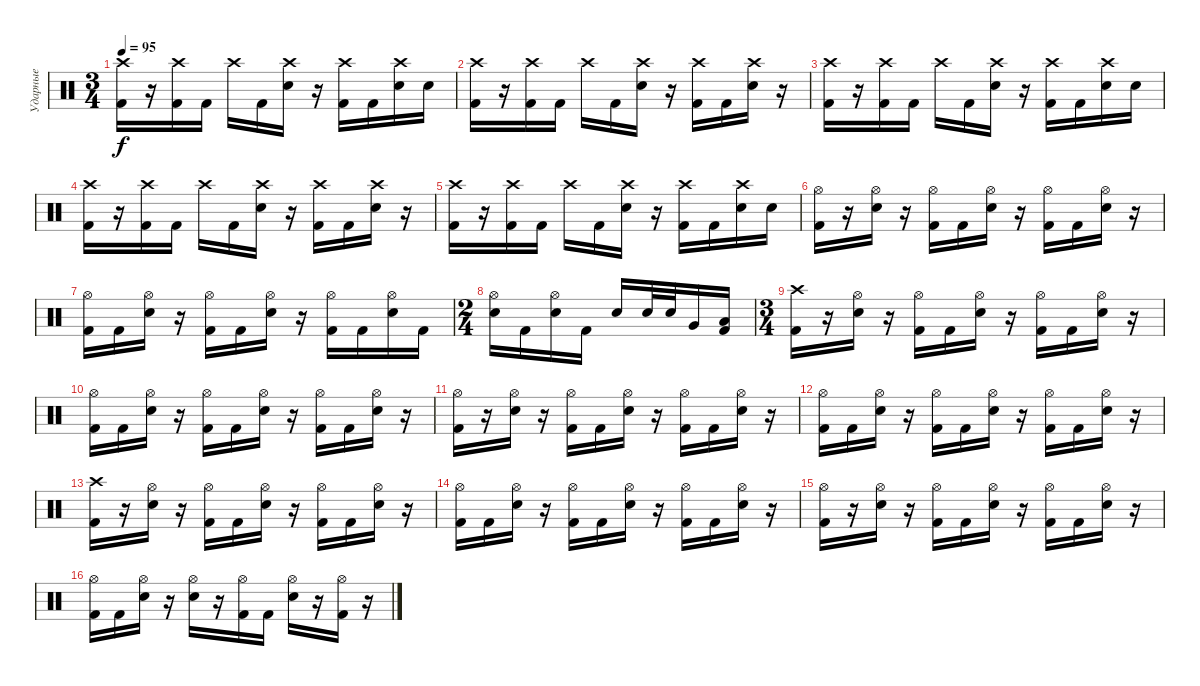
\track ("Ударные" "Ударные") {instrument percussion}
\staff {score}
\articulation defaults
\ts (3 4)
\tempo 95
\clef neutral
\ks c
("Crash high (hit)" "Kick (hit) 2").16{dy f} r.16 ("Crash high (hit)" "Kick (hit) 2").16 "Kick (hit) 2".16 "Crash high (hit)".16 "Kick (hit) 2".16 ("Crash high (hit)" "Electric Snare (hit)").16 r.16 ("Crash high (hit)" "Kick (hit) 2").16 "Kick (hit) 2".16 ("Crash high (hit)" "Electric Snare (hit)").16 "Electric Snare (hit)".16 |
("Crash high (hit)" "Kick (hit) 2").16 r.16 ("Crash high (hit)" "Kick (hit) 2").16 "Kick (hit) 2".16 "Crash high (hit)".16 "Kick (hit) 2".16 ("Crash high (hit)" "Electric Snare (hit)").16 r.16 ("Crash high (hit)" "Kick (hit) 2").16 "Kick (hit) 2".16 ("Crash high (hit)" "Electric Snare (hit)").16 r.16 |
("Crash high (hit)" "Kick (hit) 2").16 r.16 ("Crash high (hit)" "Kick (hit) 2").16 "Kick (hit) 2".16 "Crash high (hit)".16 "Kick (hit) 2".16 ("Crash high (hit)" "Electric Snare (hit)").16 r.16 ("Crash high (hit)" "Kick (hit) 2").16 "Kick (hit) 2".16 ("Crash high (hit)" "Electric Snare (hit)").16 "Electric Snare (hit)".16 |
("Crash high (hit)" "Kick (hit) 2").16 r.16 ("Crash high (hit)" "Kick (hit) 2").16 "Kick (hit) 2".16 "Crash high (hit)".16 "Kick (hit) 2".16 ("Crash high (hit)" "Electric Snare (hit)").16 r.16 ("Crash high (hit)" "Kick (hit) 2").16 "Kick (hit) 2".16 ("Crash high (hit)" "Electric Snare (hit)").16 r.16 |
("Crash high (hit)" "Kick (hit) 2").16 r.16 ("Crash high (hit)" "Kick (hit) 2").16 "Kick (hit) 2".16 "Crash high (hit)".16 "Kick (hit) 2".16 ("Crash high (hit)" "Electric Snare (hit)").16 r.16 ("Crash high (hit)" "Kick (hit) 2").16 "Kick (hit) 2".16 ("Crash high (hit)" "Electric Snare (hit)").16 "Electric Snare (hit)".16 |
("Hi-Hat (open)" "Kick (hit) 2").16 r.16 ("Hi-Hat (open)" "Electric Snare (hit)").16 r.16 ("Hi-Hat (open)" "Kick (hit) 2").16 "Kick (hit) 2".16 ("Hi-Hat (open)" "Electric Snare (hit)").16 r.16 ("Hi-Hat (open)" "Kick (hit) 2").16 "Kick (hit) 2".16 ("Hi-Hat (open)" "Electric Snare (hit)").16 r.16 |
("Hi-Hat (open)" "Kick (hit) 2").16 "Kick (hit) 2".16 ("Hi-Hat (open)" "Electric Snare (hit)").16 r.16 ("Hi-Hat (open)" "Kick (hit) 2").16 "Kick (hit) 2".16 ("Hi-Hat (open)" "Electric Snare (hit)").16 r.16 ("Hi-Hat (open)" "Kick (hit) 2").16 "Kick (hit) 2".16 ("Hi-Hat (open)" "Electric Snare (hit)").16 "Kick (hit) 2".16 |
\ts (2 4)
("Hi-Hat (open)" "Electric Snare (hit)").16 "Kick (hit) 2".16 ("Hi-Hat (open)" "Electric Snare (hit)").16 "Kick (hit) 2".16 "Electric Snare (hit)".16 "Electric Snare (hit)".32 "Electric Snare (hit)".32 "Very Low Tom (hit)".16 ("Low Floor Tom (hit)" "Kick (hit) 2").16 |
\ts (3 4)
("Crash high (hit)" "Kick (hit) 2").16 r.16 ("Hi-Hat (open)" "Electric Snare (hit)").16 r.16 ("Hi-Hat (open)" "Kick (hit) 2").16 "Kick (hit) 2".16 ("Hi-Hat (open)" "Electric Snare (hit)").16 r.16 ("Hi-Hat (open)" "Kick (hit) 2").16 "Kick (hit) 2".16 ("Hi-Hat (open)" "Electric Snare (hit)").16 r.16 |
("Hi-Hat (open)" "Kick (hit) 2").16 "Kick (hit) 2".16 ("Hi-Hat (open)" "Electric Snare (hit)").16 r.16 ("Hi-Hat (open)" "Kick (hit) 2").16 "Kick (hit) 2".16 ("Hi-Hat (open)" "Electric Snare (hit)").16 r.16 ("Hi-Hat (open)" "Kick (hit) 2").16 "Kick (hit) 2".16 ("Hi-Hat (open)" "Electric Snare (hit)").16 r.16 |
("Hi-Hat (open)" "Kick (hit) 2").16 r.16 ("Hi-Hat (open)" "Electric Snare (hit)").16 r.16 ("Hi-Hat (open)" "Kick (hit) 2").16 "Kick (hit) 2".16 ("Hi-Hat (open)" "Electric Snare (hit)").16 r.16 ("Hi-Hat (open)" "Kick (hit) 2").16 "Kick (hit) 2".16 ("Hi-Hat (open)" "Electric Snare (hit)").16 r.16 |
("Hi-Hat (open)" "Kick (hit) 2").16 "Kick (hit) 2".16 ("Hi-Hat (open)" "Electric Snare (hit)").16 r.16 ("Hi-Hat (open)" "Kick (hit) 2").16 "Kick (hit) 2".16 ("Hi-Hat (open)" "Electric Snare (hit)").16 r.16 ("Hi-Hat (open)" "Kick (hit) 2").16 "Kick (hit) 2".16 ("Hi-Hat (open)" "Electric Snare (hit)").16 r.16 |
("Crash high (hit)" "Kick (hit) 2").16 r.16 ("Hi-Hat (open)" "Electric Snare (hit)").16 r.16 ("Hi-Hat (open)" "Kick (hit) 2").16 "Kick (hit) 2".16 ("Hi-Hat (open)" "Electric Snare (hit)").16 r.16 ("Hi-Hat (open)" "Kick (hit) 2").16 "Kick (hit) 2".16 ("Hi-Hat (open)" "Electric Snare (hit)").16 r.16 |
("Hi-Hat (open)" "Kick (hit) 2").16 "Kick (hit) 2".16 ("Hi-Hat (open)" "Electric Snare (hit)").16 r.16 ("Hi-Hat (open)" "Kick (hit) 2").16 "Kick (hit) 2".16 ("Hi-Hat (open)" "Electric Snare (hit)").16 r.16 ("Hi-Hat (open)" "Kick (hit) 2").16 "Kick (hit) 2".16 ("Hi-Hat (open)" "Electric Snare (hit)").16 r.16 |
("Hi-Hat (open)" "Kick (hit) 2").16 r.16 ("Hi-Hat (open)" "Electric Snare (hit)").16 r.16 ("Hi-Hat (open)" "Kick (hit) 2").16 "Kick (hit) 2".16 ("Hi-Hat (open)" "Electric Snare (hit)").16 r.16 ("Hi-Hat (open)" "Kick (hit) 2").16 "Kick (hit) 2".16 ("Hi-Hat (open)" "Electric Snare (hit)").16 r.16 |
("Hi-Hat (open)" "Kick (hit) 2").16 "Kick (hit) 2".16 ("Hi-Hat (open)" "Electric Snare (hit)").16 r.16 ("Hi-Hat (open)" "Electric Snare (hit)").16 r.16 ("Hi-Hat (open)" "Kick (hit) 2").16 "Kick (hit) 2".16 ("Hi-Hat (open)" "Electric Snare (hit)").16 r.16 ("Hi-Hat (open)" "Kick (hit) 2").16 r.16
